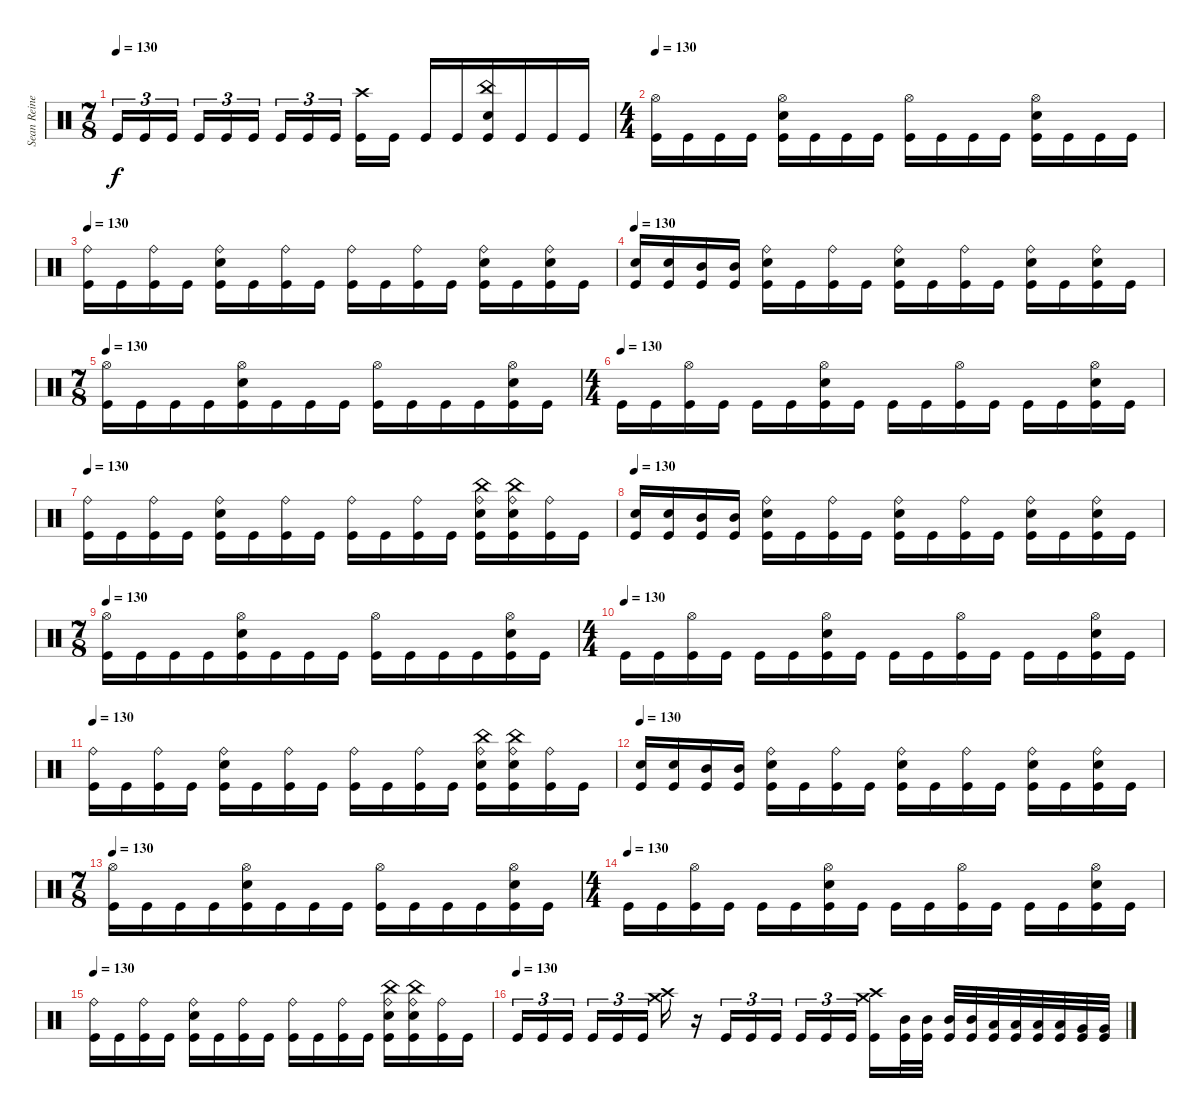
\track ("Sean Reinert" "Sean Reine") {instrument percussion}
\staff {score}
\articulation defaults
\ts (7 8)
\tempo 130
\clef neutral
\ks c "Kick (hit)".16{tu (3 2) dy f} "Kick (hit)".16{tu (3 2)} "Kick (hit)".16{tu (3 2)} "Kick (hit)".16{tu (3 2)} "Kick (hit)".16{tu (3 2)} "Kick (hit)".16{tu (3 2)} "Kick (hit)".16{tu (3 2)} "Kick (hit)".16{tu (3 2)} "Kick (hit)".16{tu (3 2)}
("Crash high (hit)" "Kick (hit)").16 "Kick (hit)".16 "Kick (hit)".16 "Kick (hit)".16 ("China (hit)" "Snare (hit) 2" "Kick (hit)").16 "Kick (hit)".16 "Kick (hit)".16 "Kick (hit)".16 |
\ts (4 4)
\tempo 130
("Hi-Hat (open)" "Kick (hit)").16 "Kick (hit)".16 "Kick (hit)".16 "Kick (hit)".16 ("Hi-Hat (open)" "Snare (hit) 2" "Kick (hit)").16 "Kick (hit)".16 "Kick (hit)".16 "Kick (hit)".16 ("Hi-Hat (open)" "Kick (hit)").16 "Kick (hit)".16 "Kick (hit)".16 "Kick (hit)".16 ("Hi-Hat (open)" "Snare (hit) 2" "Kick (hit)").16 "Kick (hit)".16 "Kick (hit)".16 "Kick (hit)".16 |
\tempo 130
("Ride (bell)" "Kick (hit)").16 "Kick (hit)".16 ("Ride (bell)" "Kick (hit)").16 "Kick (hit)".16 ("Ride (bell)" "Snare (hit) 2" "Kick (hit)").16 "Kick (hit)".16 ("Ride (bell)" "Kick (hit)").16 "Kick (hit)".16 ("Ride (bell)" "Kick (hit)").16 "Kick (hit)".16 ("Ride (bell)" "Kick (hit)").16 "Kick (hit)".16 ("Ride (bell)" "Snare (hit) 2" "Kick (hit)").16 "Kick (hit)".16 ("Ride (bell)" "Snare (hit) 2" "Kick (hit)").16 "Kick (hit)".16 |
\tempo 130
("Snare (hit) 2" "Kick (hit)").16 ("Snare (hit) 2" "Kick (hit)").16 ("Mid Tom (hit)" "Kick (hit)").16 ("Mid Tom (hit)" "Kick (hit)").16 ("Ride (bell)" "Snare (hit) 2" "Kick (hit)").16 "Kick (hit)".16 ("Ride (bell)" "Kick (hit)").16 "Kick (hit)".16 ("Ride (bell)" "Snare (hit) 2" "Kick (hit)").16 "Kick (hit)".16 ("Ride (bell)" "Kick (hit)").16 "Kick (hit)".16 ("Ride (bell)" "Snare (hit) 2" "Kick (hit)").16 "Kick (hit)".16 ("Ride (bell)" "Snare (hit) 2" "Kick (hit)").16 "Kick (hit)".16 |
\ts (7 8)
\tempo 130
("Hi-Hat (open)" "Kick (hit)").16 "Kick (hit)".16 "Kick (hit)".16 "Kick (hit)".16 ("Hi-Hat (open)" "Snare (hit) 2" "Kick (hit)").16 "Kick (hit)".16 "Kick (hit)".16 "Kick (hit)".16 ("Hi-Hat (open)" "Kick (hit)").16 "Kick (hit)".16 "Kick (hit)".16 "Kick (hit)".16 ("Hi-Hat (open)" "Snare (hit) 2" "Kick (hit)").16 "Kick (hit)".16 |
\ts (4 4)
\tempo (130)
"Kick (hit)".16 "Kick (hit)".16 ("Hi-Hat (open)" "Kick (hit)").16 "Kick (hit)".16 "Kick (hit)".16 "Kick (hit)".16 ("Hi-Hat (open)" "Snare (hit) 2" "Kick (hit)").16 "Kick (hit)".16 "Kick (hit)".16 "Kick (hit)".16 ("Hi-Hat (open)" "Kick (hit)").16 "Kick (hit)".16 "Kick (hit)".16 "Kick (hit)".16 ("Hi-Hat (open)" "Snare (hit) 2" "Kick (hit)").16 "Kick (hit)".16 |
\tempo 130
("Ride (bell)" "Kick (hit)").16 "Kick (hit)".16 ("Ride (bell)" "Kick (hit)").16 "Kick (hit)".16 ("Ride (bell)" "Snare (hit) 2" "Kick (hit)").16 "Kick (hit)".16 ("Ride (bell)" "Kick (hit)").16 "Kick (hit)".16 ("Ride (bell)" "Kick (hit)").16 "Kick (hit)".16 ("Ride (bell)" "Kick (hit)").16 "Kick (hit)".16 ("China (hit)" "Ride (bell)" "Snare (hit) 2" "Kick (hit)").16 ("China (hit)" "Ride (bell)" "Snare (hit) 2" "Kick (hit)").16 ("Ride (bell)" "Kick (hit)").16 "Kick (hit)".16 |
\tempo 130
("Snare (hit) 2" "Kick (hit)").16 ("Snare (hit) 2" "Kick (hit)").16 ("Mid Tom (hit)" "Kick (hit)").16 ("Mid Tom (hit)" "Kick (hit)").16 ("Ride (bell)" "Snare (hit) 2" "Kick (hit)").16 "Kick (hit)".16 ("Ride (bell)" "Kick (hit)").16 "Kick (hit)".16 ("Ride (bell)" "Snare (hit) 2" "Kick (hit)").16 "Kick (hit)".16 ("Ride (bell)" "Kick (hit)").16 "Kick (hit)".16 ("Ride (bell)" "Snare (hit) 2" "Kick (hit)").16 "Kick (hit)".16 ("Ride (bell)" "Snare (hit) 2" "Kick (hit)").16 "Kick (hit)".16 |
\ts (7 8)
\tempo 130
("Hi-Hat (open)" "Kick (hit)").16 "Kick (hit)".16 "Kick (hit)".16 "Kick (hit)".16 ("Hi-Hat (open)" "Snare (hit) 2" "Kick (hit)").16 "Kick (hit)".16 "Kick (hit)".16 "Kick (hit)".16 ("Hi-Hat (open)" "Kick (hit)").16 "Kick (hit)".16 "Kick (hit)".16 "Kick (hit)".16 ("Hi-Hat (open)" "Snare (hit) 2" "Kick (hit)").16 "Kick (hit)".16 |
\ts (4 4)
\tempo (130)
"Kick (hit)".16 "Kick (hit)".16 ("Hi-Hat (open)" "Kick (hit)").16 "Kick (hit)".16 "Kick (hit)".16 "Kick (hit)".16 ("Hi-Hat (open)" "Snare (hit) 2" "Kick (hit)").16 "Kick (hit)".16 "Kick (hit)".16 "Kick (hit)".16 ("Hi-Hat (open)" "Kick (hit)").16 "Kick (hit)".16 "Kick (hit)".16 "Kick (hit)".16 ("Hi-Hat (open)" "Snare (hit) 2" "Kick (hit)").16 "Kick (hit)".16 |
\tempo 130
("Ride (bell)" "Kick (hit)").16 "Kick (hit)".16 ("Ride (bell)" "Kick (hit)").16 "Kick (hit)".16 ("Ride (bell)" "Snare (hit) 2" "Kick (hit)").16 "Kick (hit)".16 ("Ride (bell)" "Kick (hit)").16 "Kick (hit)".16 ("Ride (bell)" "Kick (hit)").16 "Kick (hit)".16 ("Ride (bell)" "Kick (hit)").16 "Kick (hit)".16 ("China (hit)" "Ride (bell)" "Snare (hit) 2" "Kick (hit)").16 ("China (hit)" "Ride (bell)" "Snare (hit) 2" "Kick (hit)").16 ("Ride (bell)" "Kick (hit)").16 "Kick (hit)".16 |
\tempo 130
("Snare (hit) 2" "Kick (hit)").16 ("Snare (hit) 2" "Kick (hit)").16 ("Mid Tom (hit)" "Kick (hit)").16 ("Mid Tom (hit)" "Kick (hit)").16 ("Ride (bell)" "Snare (hit) 2" "Kick (hit)").16 "Kick (hit)".16 ("Ride (bell)" "Kick (hit)").16 "Kick (hit)".16 ("Ride (bell)" "Snare (hit) 2" "Kick (hit)").16 "Kick (hit)".16 ("Ride (bell)" "Kick (hit)").16 "Kick (hit)".16 ("Ride (bell)" "Snare (hit) 2" "Kick (hit)").16 "Kick (hit)".16 ("Ride (bell)" "Snare (hit) 2" "Kick (hit)").16 "Kick (hit)".16 |
\ts (7 8)
\tempo 130
("Hi-Hat (open)" "Kick (hit)").16 "Kick (hit)".16 "Kick (hit)".16 "Kick (hit)".16 ("Hi-Hat (open)" "Snare (hit) 2" "Kick (hit)").16 "Kick (hit)".16 "Kick (hit)".16 "Kick (hit)".16 ("Hi-Hat (open)" "Kick (hit)").16 "Kick (hit)".16 "Kick (hit)".16 "Kick (hit)".16 ("Hi-Hat (open)" "Snare (hit) 2" "Kick (hit)").16 "Kick (hit)".16 |
\ts (4 4)
\tempo (130)
"Kick (hit)".16 "Kick (hit)".16 ("Hi-Hat (open)" "Kick (hit)").16 "Kick (hit)".16 "Kick (hit)".16 "Kick (hit)".16 ("Hi-Hat (open)" "Snare (hit) 2" "Kick (hit)").16 "Kick (hit)".16 "Kick (hit)".16 "Kick (hit)".16 ("Hi-Hat (open)" "Kick (hit)").16 "Kick (hit)".16 "Kick (hit)".16 "Kick (hit)".16 ("Hi-Hat (open)" "Snare (hit) 2" "Kick (hit)").16 "Kick (hit)".16 |
\tempo 130
("Ride (bell)" "Kick (hit)").16 "Kick (hit)".16 ("Ride (bell)" "Kick (hit)").16 "Kick (hit)".16 ("Ride (bell)" "Snare (hit) 2" "Kick (hit)").16 "Kick (hit)".16 ("Ride (bell)" "Kick (hit)").16 "Kick (hit)".16 ("Ride (bell)" "Kick (hit)").16 "Kick (hit)".16 ("Ride (bell)" "Kick (hit)").16 "Kick (hit)".16 ("China (hit)" "Ride (bell)" "Snare (hit) 2" "Kick (hit)").16 ("China (hit)" "Ride (bell)" "Snare (hit) 2" "Kick (hit)").16 ("Ride (bell)" "Kick (hit)").16 "Kick (hit)".16 |
\tempo (130)
"Kick (hit)".16{tu (3 2)} "Kick (hit)".16{tu (3 2)} "Kick (hit)".16{tu (3 2)} "Kick (hit)".16{tu (3 2)} "Kick (hit)".16{tu (3 2)} "Kick (hit)".16{tu (3 2)} ("Crash high (hit)" "Crash medium (hit)").16 r.16 "Kick (hit)".16{tu (3 2)} "Kick (hit)".16{tu (3 2)} "Kick (hit)".16{tu (3 2)} "Kick (hit)".16{tu (3 2)} "Kick (hit)".16{tu (3 2)} "Kick (hit)".16{tu (3 2)} ("Crash high (hit)" "Crash medium (hit)" "Kick (hit)").16 ("Mid Tom (hit)" "Kick (hit)").32 ("Mid Tom (hit)" "Kick (hit)").32 ("Mid Tom (hit)" "Kick (hit)").32 ("Mid Tom (hit)" "Kick (hit)").32 ("Low Tom (hit)" "Kick (hit)").32 ("Low Tom (hit)" "Kick (hit)").32 ("Low Tom (hit)" "Kick (hit)").32 ("Low Tom (hit)" "Kick (hit)").32 ("Very Low Tom (hit)" "Kick (hit)").32 ("Very Low Tom (hit)" "Kick (hit)").32
